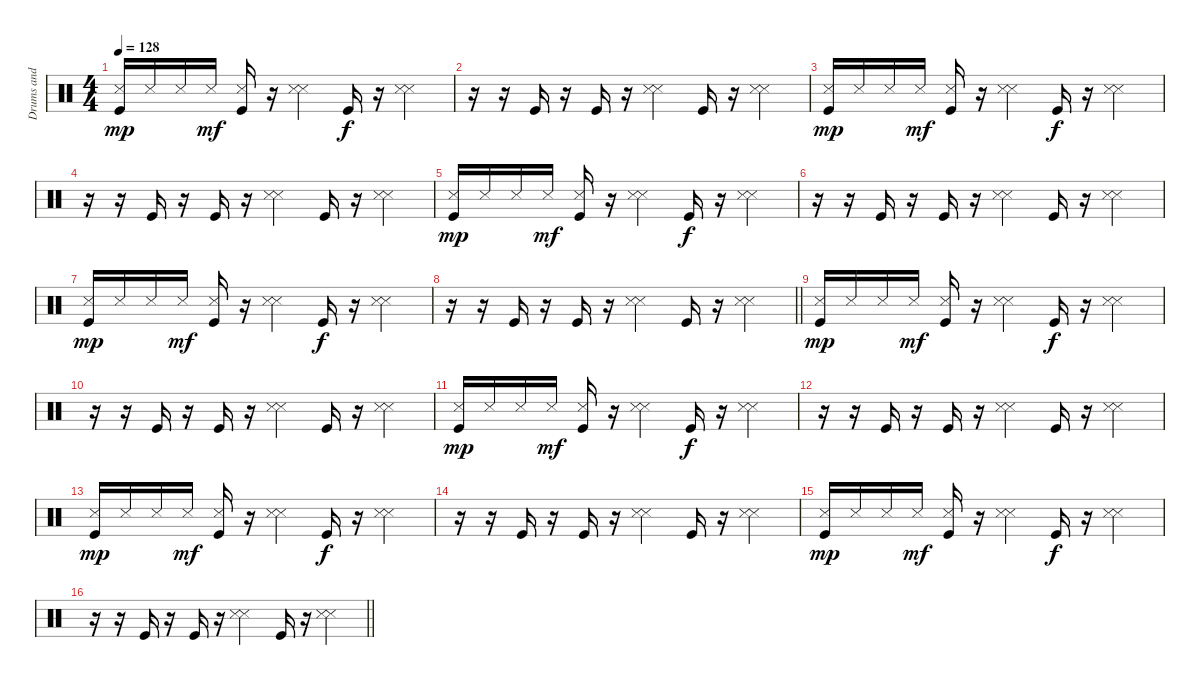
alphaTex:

\track ("Drums and Percussions" "Drums and ") {instrument percussion}
\staff {score}
\articulation defaults
\ts (4 4)
\tempo 128
\clef neutral
\ks c
("Snare (side stick) 3" "Kick (hit)").16{dy mp} "Snare (side stick) 3".16 "Snare (side stick) 3".16 "Snare (side stick) 3".16{dy mf} ("Snare (side stick) 3" "Kick (hit)").16 r.16 ("Snare (side stick) 3" "Snare (side stick) 3").4{bd 60} "Kick (hit)".16{dy f} r.16 ("Snare (side stick) 3" "Snare (side stick) 3").4{bd 120} |
r.16 r.16 "Kick (hit)".16 r.16 "Kick (hit)".16 r.16 ("Snare (side stick) 3" "Snare (side stick) 3").4{bd 120} "Kick (hit)".16 r.16 ("Snare (side stick) 3" "Snare (side stick) 3").4{bd 120} |
("Snare (side stick) 3" "Kick (hit)").16{dy mp} "Snare (side stick) 3".16 "Snare (side stick) 3".16 "Snare (side stick) 3".16{dy mf} ("Snare (side stick) 3" "Kick (hit)").16 r.16 ("Snare (side stick) 3" "Snare (side stick) 3").4{bd 60} "Kick (hit)".16{dy f} r.16 ("Snare (side stick) 3" "Snare (side stick) 3").4{bd 120} |
r.16 r.16 "Kick (hit)".16 r.16 "Kick (hit)".16 r.16 ("Snare (side stick) 3" "Snare (side stick) 3").4{bd 120} "Kick (hit)".16 r.16 ("Snare (side stick) 3" "Snare (side stick) 3").4{bd 120} |
("Snare (side stick) 3" "Kick (hit)").16{dy mp} "Snare (side stick) 3".16 "Snare (side stick) 3".16 "Snare (side stick) 3".16{dy mf} ("Snare (side stick) 3" "Kick (hit)").16 r.16 ("Snare (side stick) 3" "Snare (side stick) 3").4{bd 60} "Kick (hit)".16{dy f} r.16 ("Snare (side stick) 3" "Snare (side stick) 3").4{bd 120} |
r.16 r.16 "Kick (hit)".16 r.16 "Kick (hit)".16 r.16 ("Snare (side stick) 3" "Snare (side stick) 3").4{bd 120} "Kick (hit)".16 r.16 ("Snare (side stick) 3" "Snare (side stick) 3").4{bd 120} |
("Snare (side stick) 3" "Kick (hit)").16{dy mp} "Snare (side stick) 3".16 "Snare (side stick) 3".16 "Snare (side stick) 3".16{dy mf} ("Snare (side stick) 3" "Kick (hit)").16 r.16 ("Snare (side stick) 3" "Snare (side stick) 3").4{bd 60} "Kick (hit)".16{dy f} r.16 ("Snare (side stick) 3" "Snare (side stick) 3").4{bd 120} |
\barLineRight lightlight
r.16 r.16 "Kick (hit)".16 r.16 "Kick (hit)".16 r.16 ("Snare (side stick) 3" "Snare (side stick) 3").4{bd 120} "Kick (hit)".16 r.16 ("Snare (side stick) 3" "Snare (side stick) 3").4{bd 120} |
("Snare (side stick) 3" "Kick (hit)").16{dy mp} "Snare (side stick) 3".16 "Snare (side stick) 3".16 "Snare (side stick) 3".16{dy mf} ("Snare (side stick) 3" "Kick (hit)").16 r.16 ("Snare (side stick) 3" "Snare (side stick) 3").4{bd 60} "Kick (hit)".16{dy f} r.16 ("Snare (side stick) 3" "Snare (side stick) 3").4{bd 120} |
r.16 r.16 "Kick (hit)".16 r.16 "Kick (hit)".16 r.16 ("Snare (side stick) 3" "Snare (side stick) 3").4{bd 120} "Kick (hit)".16 r.16 ("Snare (side stick) 3" "Snare (side stick) 3").4{bd 120} |
("Snare (side stick) 3" "Kick (hit)").16{dy mp} "Snare (side stick) 3".16 "Snare (side stick) 3".16 "Snare (side stick) 3".16{dy mf} ("Snare (side stick) 3" "Kick (hit)").16 r.16 ("Snare (side stick) 3" "Snare (side stick) 3").4{bd 60} "Kick (hit)".16{dy f} r.16 ("Snare (side stick) 3" "Snare (side stick) 3").4{bd 120} |
r.16 r.16 "Kick (hit)".16 r.16 "Kick (hit)".16 r.16 ("Snare (side stick) 3" "Snare (side stick) 3").4{bd 120} "Kick (hit)".16 r.16 ("Snare (side stick) 3" "Snare (side stick) 3").4{bd 120} |
("Snare (side stick) 3" "Kick (hit)").16{dy mp} "Snare (side stick) 3".16 "Snare (side stick) 3".16 "Snare (side stick) 3".16{dy mf} ("Snare (side stick) 3" "Kick (hit)").16 r.16 ("Snare (side stick) 3" "Snare (side stick) 3").4{bd 60} "Kick (hit)".16{dy f} r.16 ("Snare (side stick) 3" "Snare (side stick) 3").4{bd 120} |
r.16 r.16 "Kick (hit)".16 r.16 "Kick (hit)".16 r.16 ("Snare (side stick) 3" "Snare (side stick) 3").4{bd 120} "Kick (hit)".16 r.16 ("Snare (side stick) 3" "Snare (side stick) 3").4{bd 120} |
("Snare (side stick) 3" "Kick (hit)").16{dy mp} "Snare (side stick) 3".16 "Snare (side stick) 3".16 "Snare (side stick) 3".16{dy mf} ("Snare (side stick) 3" "Kick (hit)").16 r.16 ("Snare (side stick) 3" "Snare (side stick) 3").4{bd 60} "Kick (hit)".16{dy f} r.16 ("Snare (side stick) 3" "Snare (side stick) 3").4{bd 120} |
\barLineRight lightlight
r.16 r.16 "Kick (hit)".16 r.16 "Kick (hit)".16 r.16 ("Snare (side stick) 3" "Snare (side stick) 3").4{bd 120} "Kick (hit)".16 r.16 ("Snare (side stick) 3" "Snare (side stick) 3").4{bd 120}
